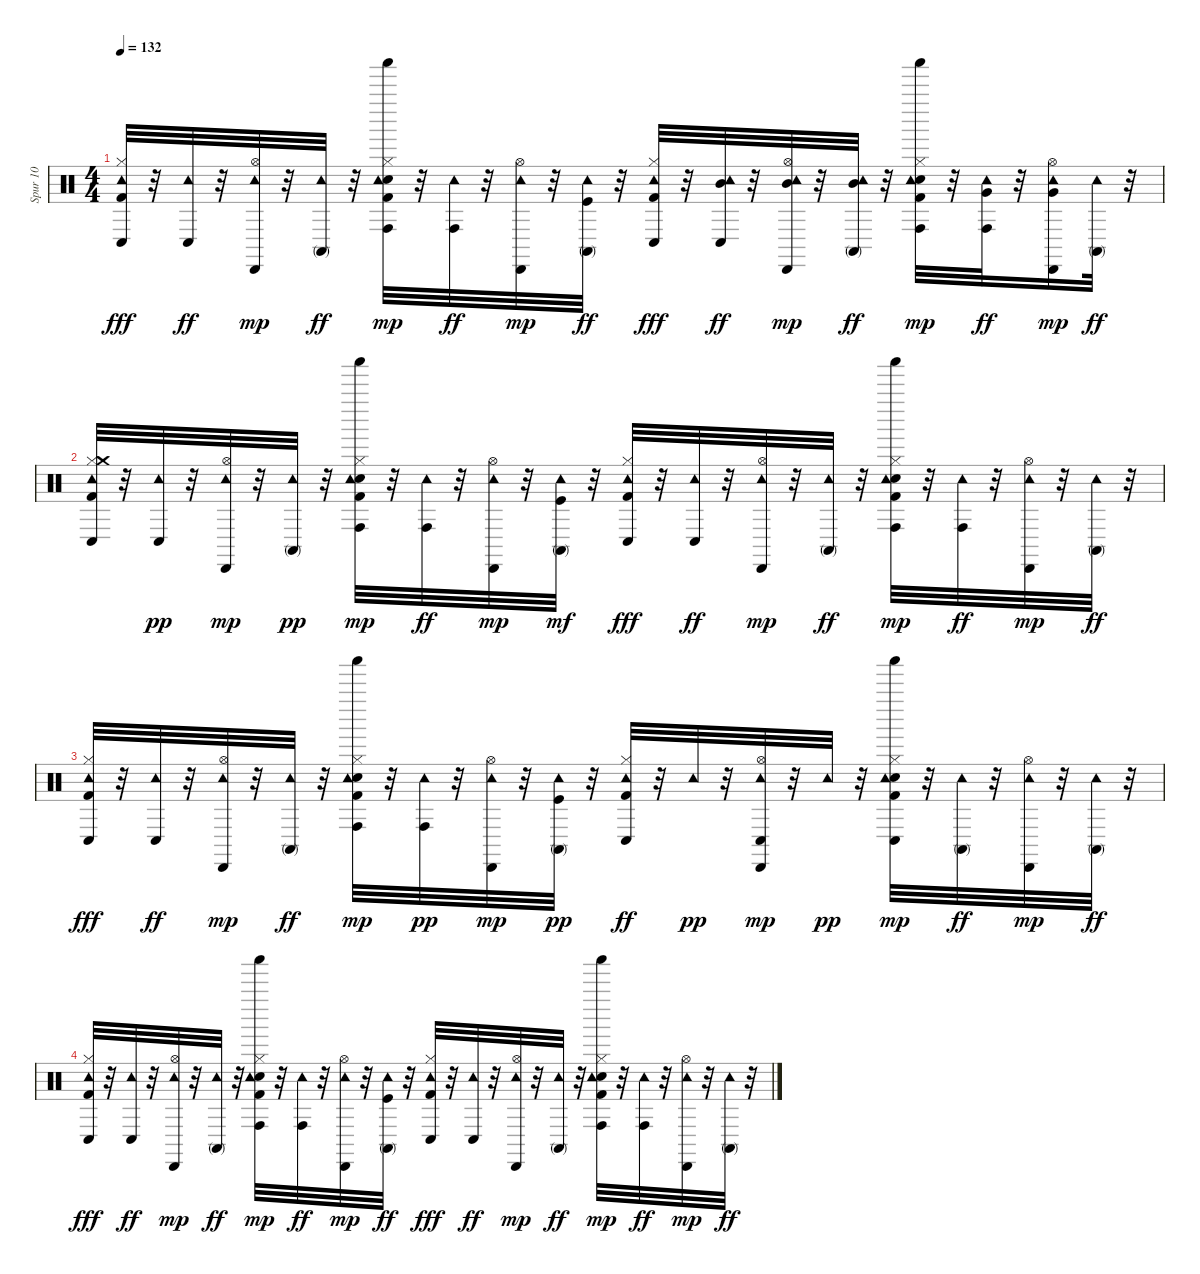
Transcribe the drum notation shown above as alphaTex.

\track ("Spur 10" "Spur 10") {instrument percussion}
\staff {score}
\articulation defaults
\ts (4 4)
\tempo 132
\clef neutral
\ks c
("Kick (hit) 2" "Hi-Hat (closed)" "Tambourine (hit)" "Conga low (hit)").32{dy fff} r.32 ("Tambourine (hit)" "Conga low (hit)").32{dy ff} r.32 ("Hi-Hat (open)" "Tambourine (hit)" "Cabasa (hit)").32{dy mp} r.32 ("Tambourine (hit)" "Conga high (mute)").32{dy ff} r.32 ("Snare (hit) 2" "Kick (hit) 2" "Hi-Hat (closed)" "Tambourine (hit)" "Conga high (hit)" "Shaker (hit)").32{dy mp} r.32 ("Tambourine (hit)" "Conga high (hit)").32{dy ff} r.32 ("Hi-Hat (open)" "Tambourine (hit)" "Cabasa (hit)").32{dy mp} r.32 ("Kick (hit)" "Tambourine (hit)" "Conga high (mute)").32{dy ff} r.32 ("Kick (hit) 2" "Hi-Hat (closed)" "Tambourine (hit)" "Conga low (hit)").32{dy fff} r.32 ("Mid Tom (hit)" "Tambourine (hit)" "Conga low (hit)").32{dy ff} r.32 ("Hi-Hat (open)" "Mid Tom (hit)" "Tambourine (hit)" "Cabasa (hit)").32{dy mp} r.32 ("Mid Tom (hit)" "Tambourine (hit)" "Conga high (mute)").32{dy ff} r.32 ("Snare (hit) 2" "Kick (hit) 2" "Hi-Hat (closed)" "Tambourine (hit)" "Conga high (hit)" "Shaker (hit)").32{dy mp} r.32 ("Very Low Tom (hit)" "Tambourine (hit)" "Conga high (hit)").32{dy ff} r.32 ("Hi-Hat (open)" "Very Low Tom (hit)" "Tambourine (hit)" "Cabasa (hit)").16{dy mp} ("Tambourine (hit)" "Conga high (mute)").32{dy ff} r.32 |
("Kick (hit) 2" "Hi-Hat (closed)" "Crash medium (hit)" "Tambourine (hit)" "Conga low (hit)").32 r.32 ("Tambourine (hit)" "Conga low (hit)").32{dy pp} r.32 ("Hi-Hat (open)" "Tambourine (hit)" "Cabasa (hit)").32{dy mp} r.32 ("Tambourine (hit)" "Conga high (mute)").32{dy pp} r.32 ("Snare (hit) 2" "Kick (hit) 2" "Hi-Hat (closed)" "Tambourine (hit)" "Conga high (hit)" "Shaker (hit)").32{dy mp} r.32 ("Tambourine (hit)" "Conga high (hit)").32{dy ff} r.32 ("Hi-Hat (open)" "Tambourine (hit)" "Cabasa (hit)").32{dy mp} r.32 ("Kick (hit)" "Tambourine (hit)" "Conga high (mute)").32{dy mf} r.32 ("Kick (hit) 2" "Hi-Hat (closed)" "Tambourine (hit)" "Conga low (hit)").32{dy fff} r.32 ("Tambourine (hit)" "Conga low (hit)").32{dy ff} r.32 ("Hi-Hat (open)" "Tambourine (hit)" "Cabasa (hit)").32{dy mp} r.32 ("Tambourine (hit)" "Conga high (mute)").32{dy ff} r.32 ("Snare (hit) 2" "Kick (hit) 2" "Hi-Hat (closed)" "Tambourine (hit)" "Conga high (hit)" "Shaker (hit)").32{dy mp} r.32 ("Tambourine (hit)" "Conga high (hit)").32{dy ff} r.32 ("Hi-Hat (open)" "Tambourine (hit)" "Cabasa (hit)").32{dy mp} r.32 ("Tambourine (hit)" "Conga high (mute)").32{dy ff} r.32 |
("Kick (hit) 2" "Hi-Hat (closed)" "Tambourine (hit)" "Conga low (hit)").32{dy fff} r.32 ("Tambourine (hit)" "Conga low (hit)").32{dy ff} r.32 ("Hi-Hat (open)" "Tambourine (hit)" "Cabasa (hit)").32{dy mp} r.32 ("Tambourine (hit)" "Conga high (mute)").32{dy ff} r.32 ("Snare (hit) 2" "Kick (hit) 2" "Hi-Hat (closed)" "Tambourine (hit)" "Conga high (hit)" "Shaker (hit)").32{dy mp} r.32 ("Tambourine (hit)" "Conga high (hit)").32{dy pp} r.32 ("Hi-Hat (open)" "Tambourine (hit)" "Cabasa (hit)").32{dy mp} r.32 ("Kick (hit)" "Tambourine (hit)" "Conga high (mute)").32{dy pp} r.32 ("Kick (hit) 2" "Hi-Hat (closed)" "Tambourine (hit)" "Conga low (hit)").32{dy ff} r.32 "Tambourine (hit)".32{dy pp} r.32 ("Hi-Hat (open)" "Tambourine (hit)" "Conga low (hit)" "Cabasa (hit)").32{dy mp} r.32 "Tambourine (hit)".32{dy pp} r.32 ("Snare (hit) 2" "Kick (hit) 2" "Hi-Hat (closed)" "Tambourine (hit)" "Conga low (hit)" "Shaker (hit)").32{dy mp} r.32 ("Tambourine (hit)" "Conga high (mute)").32{dy ff} r.32 ("Hi-Hat (open)" "Tambourine (hit)" "Cabasa (hit)").32{dy mp} r.32 ("Tambourine (hit)" "Conga high (mute)").32{dy ff} r.32 |
("Kick (hit) 2" "Hi-Hat (closed)" "Tambourine (hit)" "Conga low (hit)").32{dy fff} r.32 ("Tambourine (hit)" "Conga low (hit)").32{dy ff} r.32 ("Hi-Hat (open)" "Tambourine (hit)" "Cabasa (hit)").32{dy mp} r.32 ("Tambourine (hit)" "Conga high (mute)").32{dy ff} r.32 ("Snare (hit) 2" "Kick (hit) 2" "Hi-Hat (closed)" "Tambourine (hit)" "Conga high (hit)" "Shaker (hit)").32{dy mp} r.32 ("Tambourine (hit)" "Conga high (hit)").32{dy ff} r.32 ("Hi-Hat (open)" "Tambourine (hit)" "Cabasa (hit)").32{dy mp} r.32 ("Kick (hit)" "Tambourine (hit)" "Conga high (mute)").32{dy ff} r.32 ("Kick (hit) 2" "Hi-Hat (closed)" "Tambourine (hit)" "Conga low (hit)").32{dy fff} r.32 ("Tambourine (hit)" "Conga low (hit)").32{dy ff} r.32 ("Hi-Hat (open)" "Tambourine (hit)" "Cabasa (hit)").32{dy mp} r.32 ("Tambourine (hit)" "Conga high (mute)").32{dy ff} r.32 ("Snare (hit) 2" "Kick (hit) 2" "Hi-Hat (closed)" "Tambourine (hit)" "Conga high (hit)" "Shaker (hit)").32{dy mp} r.32 ("Tambourine (hit)" "Conga high (hit)").32{dy ff} r.32 ("Hi-Hat (open)" "Tambourine (hit)" "Cabasa (hit)").32{dy mp} r.32 ("Tambourine (hit)" "Conga high (mute)").32{dy ff} r.32
